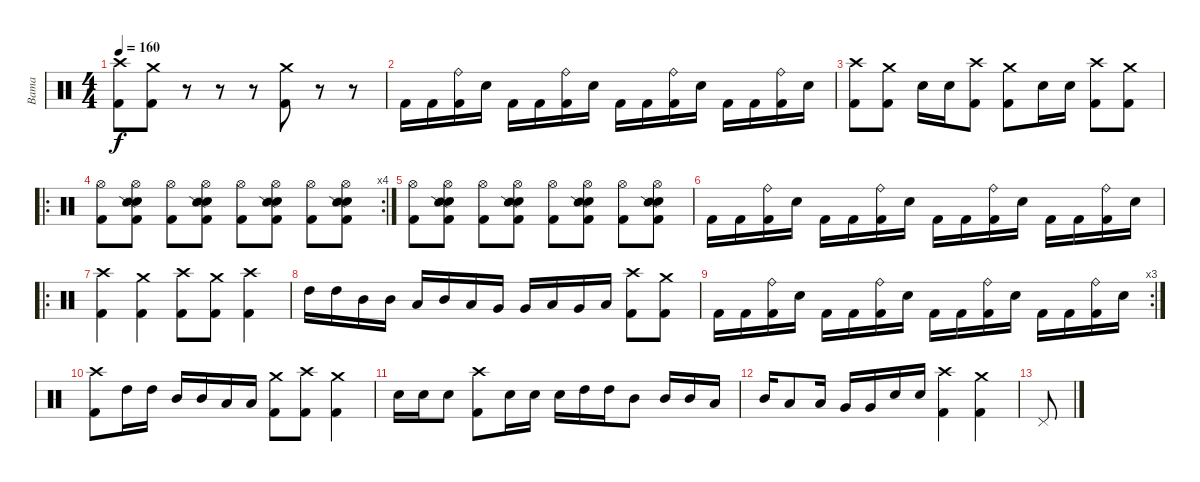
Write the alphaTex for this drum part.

\track ("Bama" "Bama") {instrument percussion}
\staff {score}
\articulation defaults
\ts (4 4)
\tempo 160
\clef neutral
\ks c
("Crash high (hit)" "Kick (hit) 2").8{dy f} ("Crash medium (hit)" "Kick (hit) 2").8 r.8 r.8 r.8 ("Crash medium (hit)" "Kick (hit) 2").8 r.8 r.8 |
"Kick (hit) 2".16 "Kick (hit) 2".16 ("Ride (bell)" "Kick (hit) 2").16 "Electric Snare (hit)".16 "Kick (hit) 2".16 "Kick (hit) 2".16 ("Ride (bell)" "Kick (hit) 2").16 "Electric Snare (hit)".16 "Kick (hit) 2".16 "Kick (hit) 2".16 ("Ride (bell)" "Kick (hit) 2").16 "Electric Snare (hit)".16 "Kick (hit) 2".16 "Kick (hit) 2".16 ("Ride (bell)" "Kick (hit) 2").16 "Electric Snare (hit)".16 |
("Crash high (hit)" "Kick (hit) 2").8 ("Crash medium (hit)" "Kick (hit) 2").8 "Electric Snare (hit)".16 "Electric Snare (hit)".16 ("Crash high (hit)" "Kick (hit) 2").8 ("Crash medium (hit)" "Kick (hit) 2").8 "Electric Snare (hit)".16 "Electric Snare (hit)".16 ("Crash high (hit)" "Kick (hit) 2").8 ("Crash medium (hit)" "Kick (hit) 2").8 |
\ro
\rc 4
("Hi-Hat (open)" "Kick (hit) 2").8 ("Hi-Hat (open)" "Electric Snare (hit)" "Snare (side stick) 2" "Kick (hit) 2").8 ("Hi-Hat (open)" "Kick (hit) 2").8 ("Hi-Hat (open)" "Electric Snare (hit)" "Snare (side stick) 2" "Kick (hit) 2").8 ("Hi-Hat (open)" "Kick (hit) 2").8 ("Hi-Hat (open)" "Electric Snare (hit)" "Snare (side stick) 2" "Kick (hit) 2").8 ("Hi-Hat (open)" "Kick (hit) 2").8 ("Hi-Hat (open)" "Electric Snare (hit)" "Snare (side stick) 2" "Kick (hit) 2").8 |
("Hi-Hat (open)" "Kick (hit) 2").8 ("Hi-Hat (open)" "Electric Snare (hit)" "Snare (side stick) 2" "Kick (hit) 2").8 ("Hi-Hat (open)" "Kick (hit) 2").8 ("Hi-Hat (open)" "Electric Snare (hit)" "Snare (side stick) 2" "Kick (hit) 2").8 ("Hi-Hat (open)" "Kick (hit) 2").8 ("Hi-Hat (open)" "Electric Snare (hit)" "Snare (side stick) 2" "Kick (hit) 2").8 ("Hi-Hat (open)" "Kick (hit) 2").8 ("Hi-Hat (open)" "Electric Snare (hit)" "Snare (side stick) 2" "Kick (hit) 2").8 |
"Kick (hit) 2".16 "Kick (hit) 2".16 ("Ride (bell)" "Kick (hit) 2").16 "Electric Snare (hit)".16 "Kick (hit) 2".16 "Kick (hit) 2".16 ("Ride (bell)" "Kick (hit) 2").16 "Electric Snare (hit)".16 "Kick (hit) 2".16 "Kick (hit) 2".16 ("Ride (bell)" "Kick (hit) 2").16 "Electric Snare (hit)".16 "Kick (hit) 2".16 "Kick (hit) 2".16 ("Ride (bell)" "Kick (hit) 2").16 "Electric Snare (hit)".16 |
\ro
("Crash high (hit)" "Kick (hit) 2").4 ("Crash medium (hit)" "Kick (hit) 2").4 ("Crash high (hit)" "Kick (hit) 2").8 ("Crash medium (hit)" "Kick (hit) 2").8 ("Crash high (hit)" "Kick (hit) 2").4 |
"High Tom (hit)".16 "High Tom (hit)".16 "Mid Tom (hit)".16 "Mid Tom (hit)".16 "Low Tom (hit)".16 "Mid Tom (hit)".16 "Low Tom (hit)".16 "Very Low Tom (hit)".16 "Very Low Tom (hit)".16 "Low Floor Tom (hit)".16 "Very Low Tom (hit)".16 "Low Floor Tom (hit)".16 ("Crash high (hit)" "Kick (hit) 2").8 ("Crash medium (hit)" "Kick (hit) 2").8 |
\rc 3 "Kick (hit) 2".16 "Kick (hit) 2".16
("Ride (bell)" "Kick (hit) 2").16 "Electric Snare (hit)".16 "Kick (hit) 2".16 "Kick (hit) 2".16 ("Ride (bell)" "Kick (hit) 2").16 "Electric Snare (hit)".16 "Kick (hit) 2".16 "Kick (hit) 2".16 ("Ride (bell)" "Kick (hit) 2").16 "Electric Snare (hit)".16 "Kick (hit) 2".16 "Kick (hit) 2".16 ("Ride (bell)" "Kick (hit) 2").16 "Electric Snare (hit)".16 |
("Crash high (hit)" "Kick (hit) 2").8 "High Tom (hit)".16 "High Tom (hit)".16 "Mid Tom (hit)".16 "Mid Tom (hit)".16 "Low Tom (hit)".16 "Low Tom (hit)".16 ("Crash medium (hit)" "Kick (hit) 2").8 ("Crash high (hit)" "Kick (hit) 2").8 ("Crash medium (hit)" "Kick (hit) 2").4 |
"Electric Snare (hit)".16 "Electric Snare (hit)".16 "Electric Snare (hit)".8 ("Crash high (hit)" "Kick (hit) 2").8 "Electric Snare (hit)".16 "Electric Snare (hit)".16 "Electric Snare (hit)".16 "High Tom (hit)".16 "High Tom (hit)".16 "Mid Tom (hit)".8 "Mid Tom (hit)".16 "Mid Tom (hit)".16 "Low Tom (hit)".16 |
"Mid Tom (hit)".16 "Low Tom (hit)".8 "Low Tom (hit)".16 "Very Low Tom (hit)".16 "Very Low Tom (hit)".16 "Electric Snare (hit)".16 "Electric Snare (hit)".16 ("Crash high (hit)" "Kick (hit) 2").4 ("Crash medium (hit)" "Kick (hit) 2").4 |
"Pedal Hi-Hat (hit)".8
